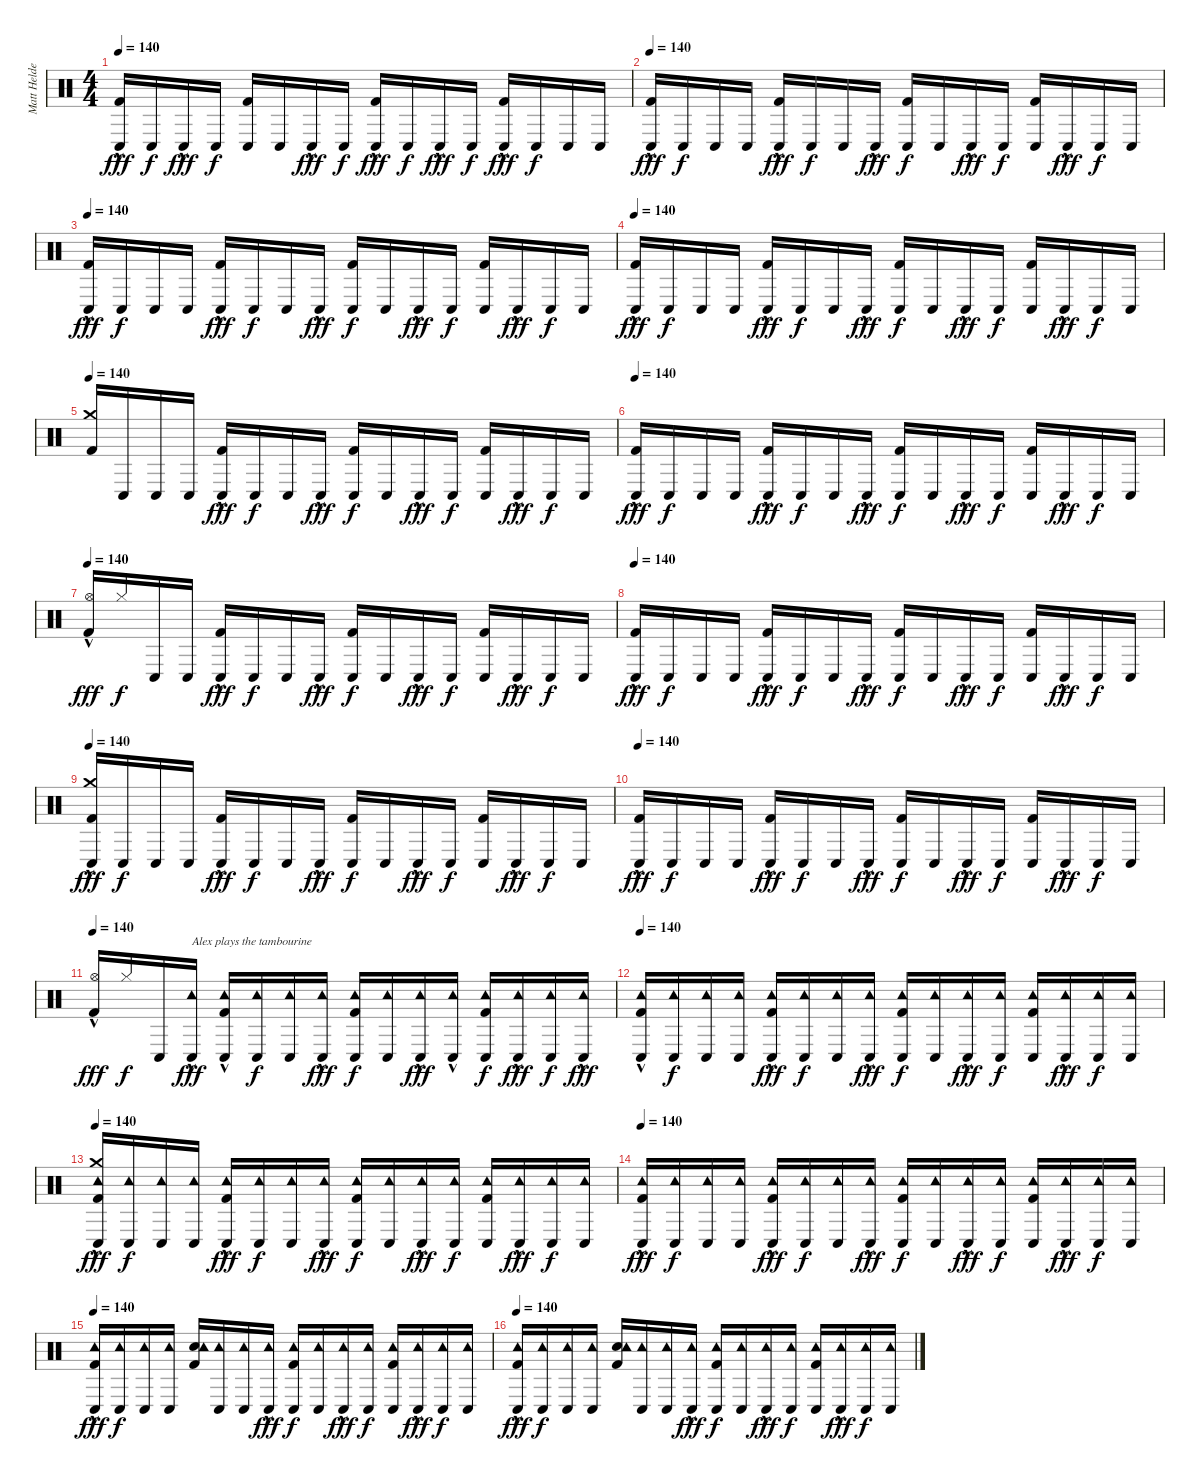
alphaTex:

\track ("Matt Helders" "Matt Helde") {instrument percussion}
\staff {score}
\articulation defaults
\ts (4 4)
\tempo 140
\clef neutral
\ks c
("Conga low (hit)"{hac} "Kick (hit) 2").16{dy fff} "Conga low (hit)".16{dy f} "Conga low (hit)"{hac}.16{dy fff} "Conga low (hit)".16{dy f} ("Conga low (hit)" "Kick (hit) 2").16 "Conga low (hit)".16 "Conga low (hit)"{hac}.16{dy fff} "Conga low (hit)".16{dy f} ("Conga low (hit)"{hac} "Kick (hit) 2").16{dy fff} "Conga low (hit)".16{dy f} "Conga low (hit)"{hac}.16{dy fff} "Conga low (hit)".16{dy f} ("Conga low (hit)"{hac} "Kick (hit) 2").16{dy fff} "Conga low (hit)".16{dy f} "Conga low (hit)".16 "Conga low (hit)".16 |
\tempo 140
("Conga low (hit)"{hac} "Kick (hit) 2").16{dy fff} "Conga low (hit)".16{dy f} "Conga low (hit)".16 "Conga low (hit)".16 ("Conga low (hit)"{hac} "Kick (hit) 2").16{dy fff} "Conga low (hit)".16{dy f} "Conga low (hit)".16 "Conga low (hit)"{hac}.16{dy fff} ("Conga low (hit)" "Kick (hit) 2").16{dy f} "Conga low (hit)".16 "Conga low (hit)"{hac}.16{dy fff} "Conga low (hit)".16{dy f} ("Conga low (hit)" "Kick (hit) 2").16 "Conga low (hit)"{hac}.16{dy fff} "Conga low (hit)".16{dy f} "Conga low (hit)".16 |
\tempo 140
("Conga low (hit)"{hac} "Kick (hit) 2").16{dy fff} "Conga low (hit)".16{dy f} "Conga low (hit)".16 "Conga low (hit)".16 ("Conga low (hit)"{hac} "Kick (hit) 2").16{dy fff} "Conga low (hit)".16{dy f} "Conga low (hit)".16 "Conga low (hit)"{hac}.16{dy fff} ("Conga low (hit)" "Kick (hit) 2").16{dy f} "Conga low (hit)".16 "Conga low (hit)"{hac}.16{dy fff} "Conga low (hit)".16{dy f} ("Conga low (hit)" "Kick (hit) 2").16 "Conga low (hit)"{hac}.16{dy fff} "Conga low (hit)".16{dy f} "Conga low (hit)".16 |
\tempo 140
("Conga low (hit)"{hac} "Kick (hit) 2").16{dy fff} "Conga low (hit)".16{dy f} "Conga low (hit)".16 "Conga low (hit)".16 ("Conga low (hit)"{hac} "Kick (hit) 2").16{dy fff} "Conga low (hit)".16{dy f} "Conga low (hit)".16 "Conga low (hit)"{hac}.16{dy fff} ("Conga low (hit)" "Kick (hit) 2").16{dy f} "Conga low (hit)".16 "Conga low (hit)"{hac}.16{dy fff} "Conga low (hit)".16{dy f} ("Conga low (hit)" "Kick (hit) 2").16 "Conga low (hit)"{hac}.16{dy fff} "Conga low (hit)".16{dy f} "Conga low (hit)".16 |
\tempo 140
("Crash medium (hit)" "Kick (hit) 2").16 "Conga low (hit)".16 "Conga low (hit)".16 "Conga low (hit)".16 ("Conga low (hit)"{hac} "Kick (hit) 2").16{dy fff} "Conga low (hit)".16{dy f} "Conga low (hit)".16 "Conga low (hit)"{hac}.16{dy fff} ("Conga low (hit)" "Kick (hit) 2").16{dy f} "Conga low (hit)".16 "Conga low (hit)"{hac}.16{dy fff} "Conga low (hit)".16{dy f} ("Conga low (hit)" "Kick (hit) 2").16 "Conga low (hit)"{hac}.16{dy fff} "Conga low (hit)".16{dy f} "Conga low (hit)".16 |
\tempo 140
("Conga low (hit)"{hac} "Kick (hit) 2").16{dy fff} "Conga low (hit)".16{dy f} "Conga low (hit)".16 "Conga low (hit)".16 ("Conga low (hit)"{hac} "Kick (hit) 2").16{dy fff} "Conga low (hit)".16{dy f} "Conga low (hit)".16 "Conga low (hit)"{hac}.16{dy fff} ("Conga low (hit)" "Kick (hit) 2").16{dy f} "Conga low (hit)".16 "Conga low (hit)"{hac}.16{dy fff} "Conga low (hit)".16{dy f} ("Conga low (hit)" "Kick (hit) 2").16 "Conga low (hit)"{hac}.16{dy fff} "Conga low (hit)".16{dy f} "Conga low (hit)".16 |
\tempo 140
("Hi-Hat (open)"{hac} "Kick (hit) 2").16{dy fff} "Hi-Hat (closed)".16{dy f} "Conga low (hit)".16 "Conga low (hit)".16 ("Conga low (hit)"{hac} "Kick (hit) 2").16{dy fff} "Conga low (hit)".16{dy f} "Conga low (hit)".16 "Conga low (hit)"{hac}.16{dy fff} ("Conga low (hit)" "Kick (hit) 2").16{dy f} "Conga low (hit)".16 "Conga low (hit)"{hac}.16{dy fff} "Conga low (hit)".16{dy f} ("Conga low (hit)" "Kick (hit) 2").16 "Conga low (hit)"{hac}.16{dy fff} "Conga low (hit)".16{dy f} "Conga low (hit)".16 |
\tempo 140
("Conga low (hit)"{hac} "Kick (hit) 2").16{dy fff} "Conga low (hit)".16{dy f} "Conga low (hit)".16 "Conga low (hit)".16 ("Conga low (hit)"{hac} "Kick (hit) 2").16{dy fff} "Conga low (hit)".16{dy f} "Conga low (hit)".16 "Conga low (hit)"{hac}.16{dy fff} ("Conga low (hit)" "Kick (hit) 2").16{dy f} "Conga low (hit)".16 "Conga low (hit)"{hac}.16{dy fff} "Conga low (hit)".16{dy f} ("Conga low (hit)" "Kick (hit) 2").16 "Conga low (hit)"{hac}.16{dy fff} "Conga low (hit)".16{dy f} "Conga low (hit)".16 |
\tempo 140
("Conga low (hit)"{hac} "Crash medium (hit)" "Kick (hit) 2").16{dy fff} "Conga low (hit)".16{dy f} "Conga low (hit)".16 "Conga low (hit)".16 ("Conga low (hit)"{hac} "Kick (hit) 2").16{dy fff} "Conga low (hit)".16{dy f} "Conga low (hit)".16 "Conga low (hit)"{hac}.16{dy fff} ("Conga low (hit)" "Kick (hit) 2").16{dy f} "Conga low (hit)".16 "Conga low (hit)"{hac}.16{dy fff} "Conga low (hit)".16{dy f} ("Conga low (hit)" "Kick (hit) 2").16 "Conga low (hit)"{hac}.16{dy fff} "Conga low (hit)".16{dy f} "Conga low (hit)".16 |
\tempo 140
("Conga low (hit)"{hac} "Kick (hit) 2").16{dy fff} "Conga low (hit)".16{dy f} "Conga low (hit)".16 "Conga low (hit)".16 ("Conga low (hit)"{hac} "Kick (hit) 2").16{dy fff} "Conga low (hit)".16{dy f} "Conga low (hit)".16 "Conga low (hit)"{hac}.16{dy fff} ("Conga low (hit)" "Kick (hit) 2").16{dy f} "Conga low (hit)".16 "Conga low (hit)"{hac}.16{dy fff} "Conga low (hit)".16{dy f} ("Conga low (hit)" "Kick (hit) 2").16 "Conga low (hit)"{hac}.16{dy fff} "Conga low (hit)".16{dy f} "Conga low (hit)".16 |
\tempo 140
("Hi-Hat (open)"{hac} "Kick (hit) 2").16{dy fff} "Hi-Hat (closed)".16{dy f} "Conga low (hit)".16 ("Conga low (hit)" "Tambourine (hit)"{hac}).16{txt "Alex plays the tambourine" dy fff} ("Conga low (hit)"{hac} "Tambourine (hit)" "Kick (hit) 2").16 ("Conga low (hit)" "Tambourine (hit)").16{dy f} ("Conga low (hit)" "Tambourine (hit)").16 ("Conga low (hit)"{hac} "Tambourine (hit)"{hac}).16{dy fff} ("Conga low (hit)" "Tambourine (hit)" "Kick (hit) 2").16{dy f} ("Conga low (hit)" "Tambourine (hit)").16 ("Conga low (hit)"{hac} "Tambourine (hit)").16{dy fff} ("Conga low (hit)" "Tambourine (hit)"{hac}).16 ("Conga low (hit)" "Tambourine (hit)" "Kick (hit) 2").16{dy f} ("Conga low (hit)"{hac} "Tambourine (hit)").16{dy fff} ("Conga low (hit)" "Tambourine (hit)").16{dy f} ("Conga low (hit)" "Tambourine (hit)"{hac}).16{dy fff} |
\tempo 140
("Conga low (hit)"{hac} "Tambourine (hit)" "Kick (hit) 2").16 ("Conga low (hit)" "Tambourine (hit)").16{dy f} ("Conga low (hit)" "Tambourine (hit)").16 ("Conga low (hit)" "Tambourine (hit)").16 ("Conga low (hit)"{hac} "Tambourine (hit)" "Kick (hit) 2").16{dy fff} ("Conga low (hit)" "Tambourine (hit)").16{dy f} ("Conga low (hit)" "Tambourine (hit)").16 ("Conga low (hit)"{hac} "Tambourine (hit)").16{dy fff} ("Conga low (hit)" "Tambourine (hit)" "Kick (hit) 2").16{dy f} ("Conga low (hit)" "Tambourine (hit)").16 ("Conga low (hit)"{hac} "Tambourine (hit)").16{dy fff} ("Conga low (hit)" "Tambourine (hit)").16{dy f} ("Conga low (hit)" "Tambourine (hit)" "Kick (hit) 2").16 ("Conga low (hit)"{hac} "Tambourine (hit)").16{dy fff} ("Conga low (hit)" "Tambourine (hit)").16{dy f} ("Conga low (hit)" "Tambourine (hit)").16 |
\tempo 140
("Conga low (hit)"{hac} "Crash medium (hit)" "Tambourine (hit)" "Kick (hit) 2").16{dy fff} ("Conga low (hit)" "Tambourine (hit)").16{dy f} ("Conga low (hit)" "Tambourine (hit)").16 ("Conga low (hit)" "Tambourine (hit)").16 ("Conga low (hit)"{hac} "Tambourine (hit)" "Kick (hit) 2").16{dy fff} ("Conga low (hit)" "Tambourine (hit)").16{dy f} ("Conga low (hit)" "Tambourine (hit)").16 ("Conga low (hit)"{hac} "Tambourine (hit)").16{dy fff} ("Conga low (hit)" "Tambourine (hit)" "Kick (hit) 2").16{dy f} ("Conga low (hit)" "Tambourine (hit)").16 ("Conga low (hit)"{hac} "Tambourine (hit)").16{dy fff} ("Conga low (hit)" "Tambourine (hit)").16{dy f} ("Conga low (hit)" "Tambourine (hit)" "Kick (hit) 2").16 ("Conga low (hit)"{hac} "Tambourine (hit)").16{dy fff} ("Conga low (hit)" "Tambourine (hit)").16{dy f} ("Conga low (hit)" "Tambourine (hit)").16 |
\tempo 140
("Conga low (hit)"{hac} "Tambourine (hit)" "Kick (hit) 2").16{dy fff} ("Conga low (hit)" "Tambourine (hit)").16{dy f} ("Conga low (hit)" "Tambourine (hit)").16 ("Conga low (hit)" "Tambourine (hit)").16 ("Conga low (hit)"{hac} "Tambourine (hit)" "Kick (hit) 2").16{dy fff} ("Conga low (hit)" "Tambourine (hit)").16{dy f} ("Conga low (hit)" "Tambourine (hit)").16 ("Conga low (hit)"{hac} "Tambourine (hit)").16{dy fff} ("Conga low (hit)" "Tambourine (hit)" "Kick (hit) 2").16{dy f} ("Conga low (hit)" "Tambourine (hit)").16 ("Conga low (hit)"{hac} "Tambourine (hit)").16{dy fff} ("Conga low (hit)" "Tambourine (hit)").16{dy f} ("Conga low (hit)" "Tambourine (hit)" "Kick (hit) 2").16 ("Conga low (hit)"{hac} "Tambourine (hit)").16{dy fff} ("Conga low (hit)" "Tambourine (hit)").16{dy f} ("Conga low (hit)" "Tambourine (hit)").16 |
\tempo 140
("Conga low (hit)"{hac} "Tambourine (hit)" "Kick (hit) 2").16{dy fff} ("Conga low (hit)" "Tambourine (hit)").16{dy f} ("Conga low (hit)" "Tambourine (hit)").16 ("Conga low (hit)" "Tambourine (hit)").16 ("Snare (hit) 2" "Tambourine (hit)" "Kick (hit) 2").16 ("Conga low (hit)" "Tambourine (hit)").16 ("Conga low (hit)" "Tambourine (hit)").16 ("Conga low (hit)"{hac} "Tambourine (hit)").16{dy fff} ("Conga low (hit)" "Tambourine (hit)" "Kick (hit) 2").16{dy f} ("Conga low (hit)" "Tambourine (hit)").16 ("Conga low (hit)"{hac} "Tambourine (hit)").16{dy fff} ("Conga low (hit)" "Tambourine (hit)").16{dy f} ("Conga low (hit)" "Tambourine (hit)" "Kick (hit) 2").16 ("Conga low (hit)"{hac} "Tambourine (hit)").16{dy fff} ("Conga low (hit)" "Tambourine (hit)").16{dy f} ("Conga low (hit)" "Tambourine (hit)").16 |
\tempo 140
("Conga low (hit)"{hac} "Tambourine (hit)" "Kick (hit) 2").16{dy fff} ("Conga low (hit)" "Tambourine (hit)").16{dy f} ("Conga low (hit)" "Tambourine (hit)").16 ("Conga low (hit)" "Tambourine (hit)").16 ("Snare (hit) 2" "Tambourine (hit)" "Kick (hit) 2").16 ("Conga low (hit)" "Tambourine (hit)").16 ("Conga low (hit)" "Tambourine (hit)").16 ("Conga low (hit)"{hac} "Tambourine (hit)").16{dy fff} ("Conga low (hit)" "Tambourine (hit)" "Kick (hit) 2").16{dy f} ("Conga low (hit)" "Tambourine (hit)").16 ("Conga low (hit)"{hac} "Tambourine (hit)").16{dy fff} ("Conga low (hit)" "Tambourine (hit)").16{dy f} ("Conga low (hit)" "Tambourine (hit)" "Kick (hit) 2").16 ("Conga low (hit)"{hac} "Tambourine (hit)").16{dy fff} ("Conga low (hit)" "Tambourine (hit)").16{dy f} ("Conga low (hit)" "Tambourine (hit)").16
